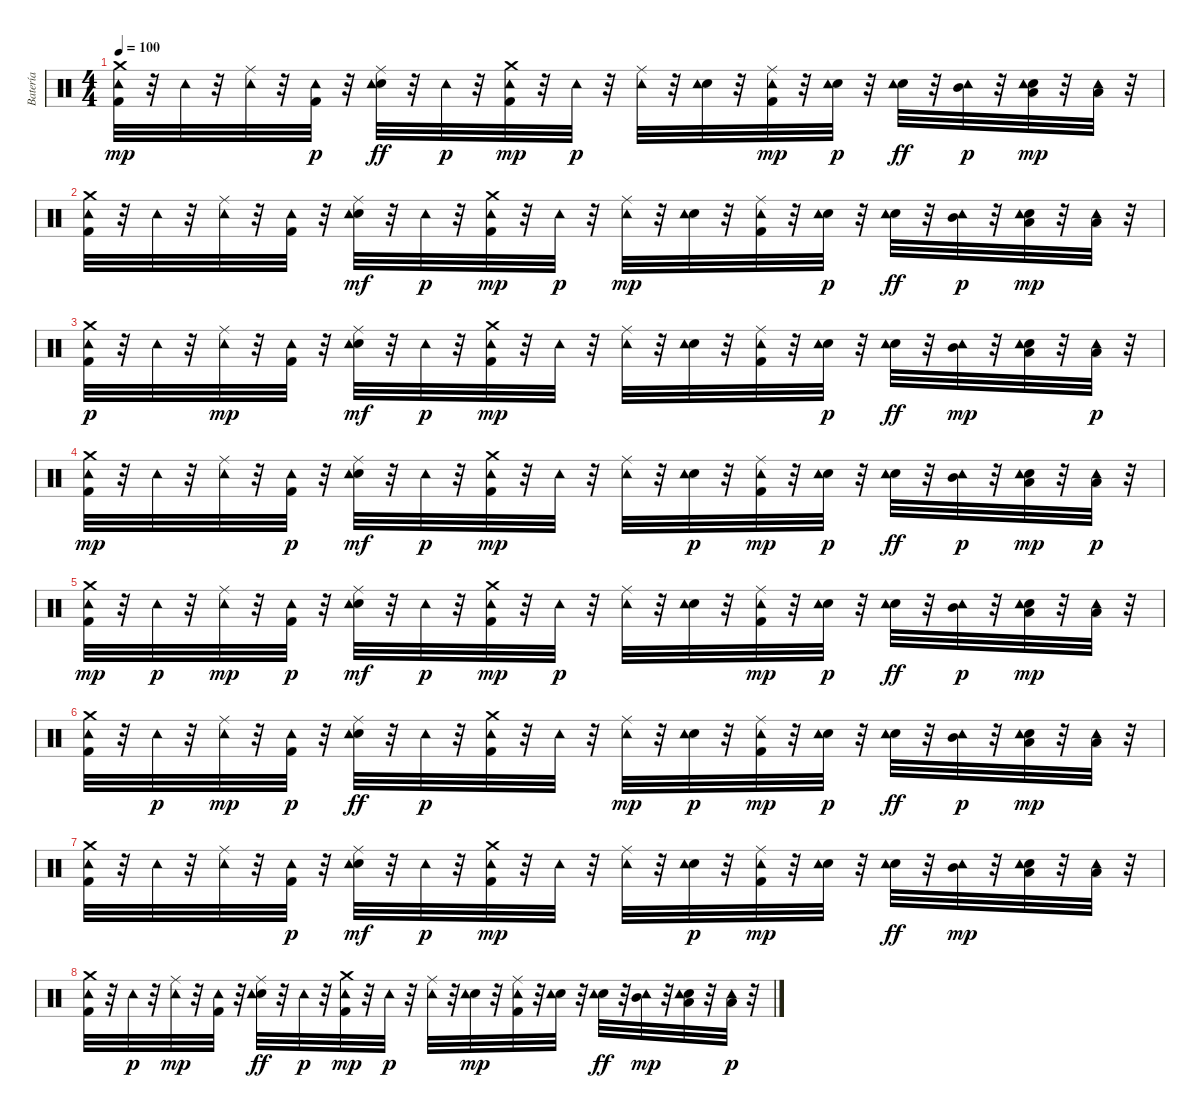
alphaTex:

\track ("Batería" "Batería") {instrument percussion}
\staff {score}
\articulation defaults
\ts (4 4)
\tempo 100
\clef neutral
\ks c
("Kick (hit) 2" "Tambourine (hit)" "Crash medium (hit)").32{dy mp} r.32 "Tambourine (hit)".32 r.32 ("Ride (middle)" "Tambourine (hit)").32 r.32 ("Kick (hit) 2" "Tambourine (hit)").32{dy p} r.32 ("Electric Snare (hit)" "Ride (middle)" "Tambourine (hit)").32{dy ff} r.32 "Tambourine (hit)".32{dy p} r.32 ("Kick (hit) 2" "Tambourine (hit)" "Crash medium (hit)").32{dy mp} r.32 "Tambourine (hit)".32{dy p} r.32 ("Ride (middle)" "Tambourine (hit)").32 r.32 ("Electric Snare (hit)" "Tambourine (hit)").32 r.32 ("Kick (hit) 2" "Ride (middle)" "Tambourine (hit)").32{dy mp} r.32 ("Electric Snare (hit)" "Tambourine (hit)").32{dy p} r.32 ("Electric Snare (hit)" "Tambourine (hit)").32{dy ff} r.32 ("Mid Tom (hit)" "Tambourine (hit)").32{dy p} r.32 ("Electric Snare (hit)" "Low Tom (hit)" "Tambourine (hit)").32{dy mp} r.32 ("Low Tom (hit)" "Tambourine (hit)").32 r.32 |
("Kick (hit) 2" "Tambourine (hit)" "Crash medium (hit)").32 r.32 "Tambourine (hit)".32 r.32 ("Ride (middle)" "Tambourine (hit)").32 r.32 ("Kick (hit) 2" "Tambourine (hit)").32 r.32 ("Electric Snare (hit)" "Ride (middle)" "Tambourine (hit)").32{dy mf} r.32 "Tambourine (hit)".32{dy p} r.32 ("Kick (hit) 2" "Tambourine (hit)" "Crash medium (hit)").32{dy mp} r.32 "Tambourine (hit)".32{dy p} r.32 ("Ride (middle)" "Tambourine (hit)").32{dy mp} r.32 ("Electric Snare (hit)" "Tambourine (hit)").32 r.32 ("Kick (hit) 2" "Ride (middle)" "Tambourine (hit)").32 r.32 ("Electric Snare (hit)" "Tambourine (hit)").32{dy p} r.32 ("Electric Snare (hit)" "Tambourine (hit)").32{dy ff} r.32 ("Mid Tom (hit)" "Tambourine (hit)").32{dy p} r.32 ("Electric Snare (hit)" "Low Tom (hit)" "Tambourine (hit)").32{dy mp} r.32 ("Low Tom (hit)" "Tambourine (hit)").32 r.32 |
("Kick (hit) 2" "Tambourine (hit)" "Crash medium (hit)").32{dy p} r.32 "Tambourine (hit)".32 r.32 ("Ride (middle)" "Tambourine (hit)").32{dy mp} r.32 ("Kick (hit) 2" "Tambourine (hit)").32 r.32 ("Electric Snare (hit)" "Ride (middle)" "Tambourine (hit)").32{dy mf} r.32 "Tambourine (hit)".32{dy p} r.32 ("Kick (hit) 2" "Tambourine (hit)" "Crash medium (hit)").32{dy mp} r.32 "Tambourine (hit)".32 r.32 ("Ride (middle)" "Tambourine (hit)").32 r.32 ("Electric Snare (hit)" "Tambourine (hit)").32 r.32 ("Kick (hit) 2" "Ride (middle)" "Tambourine (hit)").32 r.32 ("Electric Snare (hit)" "Tambourine (hit)").32{dy p} r.32 ("Electric Snare (hit)" "Tambourine (hit)").32{dy ff} r.32 ("Mid Tom (hit)" "Tambourine (hit)").32{dy mp} r.32 ("Electric Snare (hit)" "Low Tom (hit)" "Tambourine (hit)").32 r.32 ("Low Tom (hit)" "Tambourine (hit)").32{dy p} r.32 |
("Kick (hit) 2" "Tambourine (hit)" "Crash medium (hit)").32{dy mp} r.32 "Tambourine (hit)".32 r.32 ("Ride (middle)" "Tambourine (hit)").32 r.32 ("Kick (hit) 2" "Tambourine (hit)").32{dy p} r.32 ("Electric Snare (hit)" "Ride (middle)" "Tambourine (hit)").32{dy mf} r.32 "Tambourine (hit)".32{dy p} r.32 ("Kick (hit) 2" "Tambourine (hit)" "Crash medium (hit)").32{dy mp} r.32 "Tambourine (hit)".32 r.32 ("Ride (middle)" "Tambourine (hit)").32 r.32 ("Electric Snare (hit)" "Tambourine (hit)").32{dy p} r.32 ("Kick (hit) 2" "Ride (middle)" "Tambourine (hit)").32{dy mp} r.32 ("Electric Snare (hit)" "Tambourine (hit)").32{dy p} r.32 ("Electric Snare (hit)" "Tambourine (hit)").32{dy ff} r.32 ("Mid Tom (hit)" "Tambourine (hit)").32{dy p} r.32 ("Electric Snare (hit)" "Low Tom (hit)" "Tambourine (hit)").32{dy mp} r.32 ("Low Tom (hit)" "Tambourine (hit)").32{dy p} r.32 |
("Kick (hit) 2" "Tambourine (hit)" "Crash medium (hit)").32{dy mp} r.32 "Tambourine (hit)".32{dy p} r.32 ("Ride (middle)" "Tambourine (hit)").32{dy mp} r.32 ("Kick (hit) 2" "Tambourine (hit)").32{dy p} r.32 ("Electric Snare (hit)" "Ride (middle)" "Tambourine (hit)").32{dy mf} r.32 "Tambourine (hit)".32{dy p} r.32 ("Kick (hit) 2" "Tambourine (hit)" "Crash medium (hit)").32{dy mp} r.32 "Tambourine (hit)".32{dy p} r.32 ("Ride (middle)" "Tambourine (hit)").32 r.32 ("Electric Snare (hit)" "Tambourine (hit)").32 r.32 ("Kick (hit) 2" "Ride (middle)" "Tambourine (hit)").32{dy mp} r.32 ("Electric Snare (hit)" "Tambourine (hit)").32{dy p} r.32 ("Electric Snare (hit)" "Tambourine (hit)").32{dy ff} r.32 ("Mid Tom (hit)" "Tambourine (hit)").32{dy p} r.32 ("Electric Snare (hit)" "Low Tom (hit)" "Tambourine (hit)").32{dy mp} r.32 ("Low Tom (hit)" "Tambourine (hit)").32 r.32 |
("Kick (hit) 2" "Tambourine (hit)" "Crash medium (hit)").32 r.32 "Tambourine (hit)".32{dy p} r.32 ("Ride (middle)" "Tambourine (hit)").32{dy mp} r.32 ("Kick (hit) 2" "Tambourine (hit)").32{dy p} r.32 ("Electric Snare (hit)" "Ride (middle)" "Tambourine (hit)").32{dy ff} r.32 "Tambourine (hit)".32{dy p} r.32 ("Kick (hit) 2" "Tambourine (hit)" "Crash medium (hit)").32 r.32 "Tambourine (hit)".32 r.32 ("Ride (middle)" "Tambourine (hit)").32{dy mp} r.32 ("Electric Snare (hit)" "Tambourine (hit)").32{dy p} r.32 ("Kick (hit) 2" "Ride (middle)" "Tambourine (hit)").32{dy mp} r.32 ("Electric Snare (hit)" "Tambourine (hit)").32{dy p} r.32 ("Electric Snare (hit)" "Tambourine (hit)").32{dy ff} r.32 ("Mid Tom (hit)" "Tambourine (hit)").32{dy p} r.32 ("Electric Snare (hit)" "Low Tom (hit)" "Tambourine (hit)").32{dy mp} r.32 ("Low Tom (hit)" "Tambourine (hit)").32 r.32 |
("Kick (hit) 2" "Tambourine (hit)" "Crash medium (hit)").32 r.32 "Tambourine (hit)".32 r.32 ("Ride (middle)" "Tambourine (hit)").32 r.32 ("Kick (hit) 2" "Tambourine (hit)").32{dy p} r.32 ("Electric Snare (hit)" "Ride (middle)" "Tambourine (hit)").32{dy mf} r.32 "Tambourine (hit)".32{dy p} r.32 ("Kick (hit) 2" "Tambourine (hit)" "Crash medium (hit)").32{dy mp} r.32 "Tambourine (hit)".32 r.32 ("Ride (middle)" "Tambourine (hit)").32 r.32 ("Electric Snare (hit)" "Tambourine (hit)").32{dy p} r.32 ("Kick (hit) 2" "Ride (middle)" "Tambourine (hit)").32{dy mp} r.32 ("Electric Snare (hit)" "Tambourine (hit)").32 r.32 ("Electric Snare (hit)" "Tambourine (hit)").32{dy ff} r.32 ("Mid Tom (hit)" "Tambourine (hit)").32{dy mp} r.32 ("Electric Snare (hit)" "Low Tom (hit)" "Tambourine (hit)").32 r.32 ("Low Tom (hit)" "Tambourine (hit)").32 r.32 |
("Kick (hit) 2" "Tambourine (hit)" "Crash medium (hit)").32 r.32 "Tambourine (hit)".32{dy p} r.32 ("Ride (middle)" "Tambourine (hit)").32{dy mp} r.32 ("Kick (hit) 2" "Tambourine (hit)").32 r.32 ("Electric Snare (hit)" "Ride (middle)" "Tambourine (hit)").32{dy ff} r.32 "Tambourine (hit)".32{dy p} r.32 ("Kick (hit) 2" "Tambourine (hit)" "Crash medium (hit)").32{dy mp} r.32 "Tambourine (hit)".32{dy p} r.32 ("Ride (middle)" "Tambourine (hit)").32 r.32 ("Electric Snare (hit)" "Tambourine (hit)").32{dy mp} r.32 ("Kick (hit) 2" "Ride (middle)" "Tambourine (hit)").32 r.32 ("Electric Snare (hit)" "Tambourine (hit)").32 r.32 ("Electric Snare (hit)" "Tambourine (hit)").32{dy ff} r.32 ("Mid Tom (hit)" "Tambourine (hit)").32{dy mp} r.32 ("Electric Snare (hit)" "Low Tom (hit)" "Tambourine (hit)").32 r.32 ("Low Tom (hit)" "Tambourine (hit)").32{dy p} r.32
